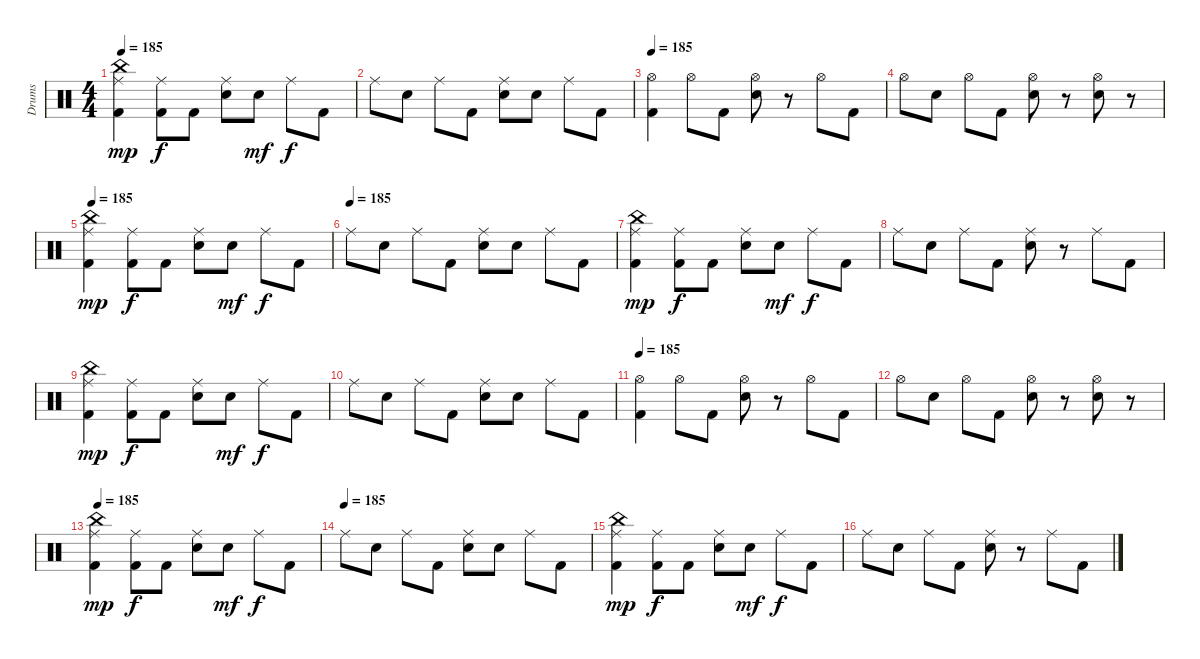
\track ("Drums" "Drums") {instrument percussion}
\staff {score}
\articulation defaults
\ts (4 4)
\tempo 185
\clef neutral
\ks c
("Ride (middle)" "China (hit)" "Kick (hit) 2").4{dy mp} ("Ride (middle)" "Kick (hit) 2").8{dy f} "Kick (hit) 2".8 ("Ride (middle)" "Snare (hit) 2").8 "Snare (hit) 2".8{dy mf} "Ride (middle)".8{dy f} "Kick (hit) 2".8 |
"Ride (middle)".8 "Snare (hit) 2".8 "Ride (middle)".8 "Kick (hit) 2".8 ("Ride (middle)" "Snare (hit) 2").8 "Snare (hit) 2".8 "Ride (middle)".8 "Kick (hit) 2".8 |
\tempo 185
("Hi-Hat (open)" "Kick (hit) 2").4 "Hi-Hat (open)".8 "Kick (hit) 2".8 ("Hi-Hat (open)" "Snare (hit) 2").8 r.8 "Hi-Hat (open)".8 "Kick (hit) 2".8 |
"Hi-Hat (open)".8 "Snare (hit) 2".8 "Hi-Hat (open)".8 "Kick (hit) 2".8 ("Hi-Hat (open)" "Snare (hit) 2").8 r.8 ("Hi-Hat (open)" "Snare (hit) 2").8 r.8 |
\tempo 185
("Ride (middle)" "China (hit)" "Kick (hit) 2").4{dy mp volume 12} ("Ride (middle)" "Kick (hit) 2").8{dy f} "Kick (hit) 2".8 ("Ride (middle)" "Snare (hit) 2").8 "Snare (hit) 2".8{dy mf} "Ride (middle)".8{dy f} "Kick (hit) 2".8 |
\tempo (185)
"Ride (middle)".8 "Snare (hit) 2".8 "Ride (middle)".8 "Kick (hit) 2".8 ("Ride (middle)" "Snare (hit) 2").8 "Snare (hit) 2".8 "Ride (middle)".8 "Kick (hit) 2".8 |
("Ride (middle)" "China (hit)" "Kick (hit) 2").4{dy mp} ("Ride (middle)" "Kick (hit) 2").8{dy f} "Kick (hit) 2".8 ("Ride (middle)" "Snare (hit) 2").8 "Snare (hit) 2".8{dy mf} "Ride (middle)".8{dy f} "Kick (hit) 2".8 |
"Ride (middle)".8 "Snare (hit) 2".8 "Ride (middle)".8 "Kick (hit) 2".8 ("Ride (middle)" "Snare (hit) 2").8 r.8 "Ride (middle)".8 "Kick (hit) 2".8 |
("Ride (middle)" "China (hit)" "Kick (hit) 2").4{dy mp} ("Ride (middle)" "Kick (hit) 2").8{dy f} "Kick (hit) 2".8 ("Ride (middle)" "Snare (hit) 2").8 "Snare (hit) 2".8{dy mf} "Ride (middle)".8{dy f} "Kick (hit) 2".8 |
"Ride (middle)".8 "Snare (hit) 2".8 "Ride (middle)".8 "Kick (hit) 2".8 ("Ride (middle)" "Snare (hit) 2").8 "Snare (hit) 2".8 "Ride (middle)".8 "Kick (hit) 2".8 |
\tempo 185
("Hi-Hat (open)" "Kick (hit) 2").4 "Hi-Hat (open)".8 "Kick (hit) 2".8 ("Hi-Hat (open)" "Snare (hit) 2").8 r.8 "Hi-Hat (open)".8 "Kick (hit) 2".8 |
"Hi-Hat (open)".8 "Snare (hit) 2".8 "Hi-Hat (open)".8 "Kick (hit) 2".8 ("Hi-Hat (open)" "Snare (hit) 2").8 r.8 ("Hi-Hat (open)" "Snare (hit) 2").8 r.8 |
\tempo 185
("Ride (middle)" "China (hit)" "Kick (hit) 2").4{dy mp volume 12} ("Ride (middle)" "Kick (hit) 2").8{dy f} "Kick (hit) 2".8 ("Ride (middle)" "Snare (hit) 2").8 "Snare (hit) 2".8{dy mf} "Ride (middle)".8{dy f} "Kick (hit) 2".8 |
\tempo (185)
"Ride (middle)".8 "Snare (hit) 2".8 "Ride (middle)".8 "Kick (hit) 2".8 ("Ride (middle)" "Snare (hit) 2").8 "Snare (hit) 2".8 "Ride (middle)".8 "Kick (hit) 2".8 |
("Ride (middle)" "China (hit)" "Kick (hit) 2").4{dy mp} ("Ride (middle)" "Kick (hit) 2").8{dy f} "Kick (hit) 2".8 ("Ride (middle)" "Snare (hit) 2").8 "Snare (hit) 2".8{dy mf} "Ride (middle)".8{dy f} "Kick (hit) 2".8 |
"Ride (middle)".8 "Snare (hit) 2".8 "Ride (middle)".8 "Kick (hit) 2".8 ("Ride (middle)" "Snare (hit) 2").8 r.8 "Ride (middle)".8 "Kick (hit) 2".8
